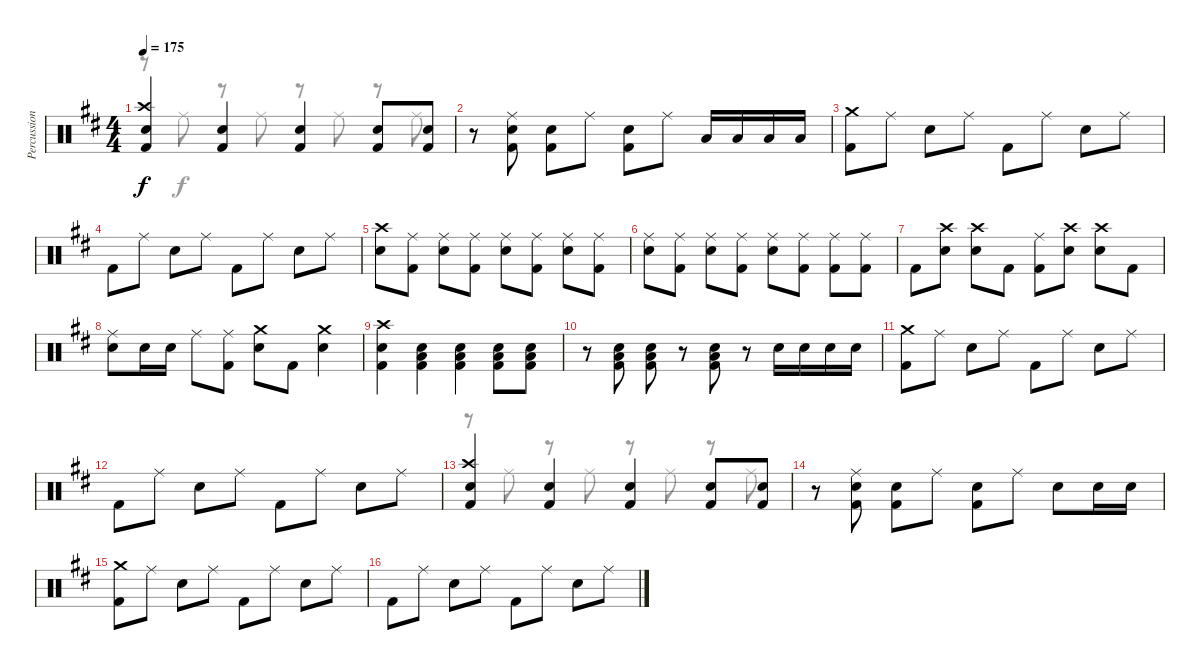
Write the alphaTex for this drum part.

\track ("Percussion" "Percussion") {instrument percussion}
\staff {score}
\articulation defaults
\voice
\ts (4 4)
\tempo 175
\clef neutral
\ks d
("Crash high (hit)" "Electric Snare (hit)" "Kick (hit) 2").4{dy f} ("Electric Snare (hit)" "Kick (hit) 2").4 ("Electric Snare (hit)" "Kick (hit) 2").4 ("Electric Snare (hit)" "Kick (hit) 2").8 ("Electric Snare (hit)" "Kick (hit) 2").8 |
r.8 ("Ride (middle)" "Electric Snare (hit)" "Kick (hit) 2").8 ("Electric Snare (hit)" "Kick (hit) 2").8 "Ride (middle)".8 ("Electric Snare (hit)" "Kick (hit) 2").8 "Ride (middle)".8 "Low Floor Tom (hit)".16 "Low Floor Tom (hit)".16 "Low Floor Tom (hit)".16 "Low Floor Tom (hit)".16 |
("Crash medium (hit)" "Kick (hit) 2").8 "Ride (middle)".8 "Electric Snare (hit)".8 "Ride (middle)".8 "Kick (hit) 2".8 "Ride (middle)".8 "Electric Snare (hit)".8 "Ride (middle)".8 |
"Kick (hit) 2".8 "Ride (middle)".8 "Electric Snare (hit)".8 "Ride (middle)".8 "Kick (hit) 2".8 "Ride (middle)".8 "Electric Snare (hit)".8 "Ride (middle)".8 |
("Crash high (hit)" "Electric Snare (hit)").8 ("Ride (middle)" "Kick (hit) 2").8 ("Ride (middle)" "Electric Snare (hit)").8 ("Ride (middle)" "Kick (hit) 2").8 ("Ride (middle)" "Electric Snare (hit)").8 ("Ride (middle)" "Kick (hit) 2").8 ("Ride (middle)" "Electric Snare (hit)").8 ("Ride (middle)" "Kick (hit) 2").8 |
("Ride (middle)" "Electric Snare (hit)").8 ("Ride (middle)" "Kick (hit) 2").8 ("Ride (middle)" "Electric Snare (hit)").8 ("Ride (middle)" "Kick (hit) 2").8 ("Ride (middle)" "Electric Snare (hit)").8 ("Ride (middle)" "Kick (hit) 2").8 ("Ride (middle)" "Kick (hit) 2").8 ("Ride (middle)" "Kick (hit) 2").8 |
"Kick (hit) 2".8 ("Crash high (hit)" "Electric Snare (hit)").8 ("Crash high (hit)" "Electric Snare (hit)").8 "Kick (hit) 2".8 ("Ride (middle)" "Kick (hit) 2").8 ("Crash high (hit)" "Electric Snare (hit)").8 ("Crash high (hit)" "Electric Snare (hit)").8 "Kick (hit) 2".8 |
("Ride (middle)" "Electric Snare (hit)").8 "Electric Snare (hit)".16 "Electric Snare (hit)".16 "Ride (middle)".8 ("Ride (middle)" "Kick (hit) 2").8 ("Crash medium (hit)" "Electric Snare (hit)").8 "Kick (hit) 2".8 ("Crash medium (hit)" "Electric Snare (hit)").4 |
("Crash high (hit)" "Electric Snare (hit)" "Kick (hit) 2").4 ("Low Floor Tom (hit)" "Electric Snare (hit)" "Kick (hit) 2").4 ("Low Floor Tom (hit)" "Electric Snare (hit)" "Kick (hit) 2").4 ("Low Floor Tom (hit)" "Electric Snare (hit)" "Kick (hit) 2").8 ("Low Floor Tom (hit)" "Electric Snare (hit)" "Kick (hit) 2").8 |
r.8 ("Low Floor Tom (hit)" "Electric Snare (hit)" "Kick (hit) 2").8 ("Low Floor Tom (hit)" "Electric Snare (hit)" "Kick (hit) 2").8 r.8 ("Low Floor Tom (hit)" "Electric Snare (hit)" "Kick (hit) 2").8 r.8 "Electric Snare (hit)".16 "Electric Snare (hit)".16 "Electric Snare (hit)".16 "Electric Snare (hit)".16 |
("Crash medium (hit)" "Kick (hit) 2").8 "Ride (middle)".8 "Electric Snare (hit)".8 "Ride (middle)".8 "Kick (hit) 2".8 "Ride (middle)".8 "Electric Snare (hit)".8 "Ride (middle)".8 |
"Kick (hit) 2".8 "Ride (middle)".8 "Electric Snare (hit)".8 "Ride (middle)".8 "Kick (hit) 2".8 "Ride (middle)".8 "Electric Snare (hit)".8 "Ride (middle)".8 |
("Crash high (hit)" "Electric Snare (hit)" "Kick (hit) 2").4 ("Electric Snare (hit)" "Kick (hit) 2").4 ("Electric Snare (hit)" "Kick (hit) 2").4 ("Electric Snare (hit)" "Kick (hit) 2").8 ("Electric Snare (hit)" "Kick (hit) 2").8 |
r.8 ("Ride (middle)" "Electric Snare (hit)" "Kick (hit) 2").8 ("Electric Snare (hit)" "Kick (hit) 2").8 "Ride (middle)".8 ("Electric Snare (hit)" "Kick (hit) 2").8 "Ride (middle)".8 "Electric Snare (hit)".8 "Electric Snare (hit)".16 "Electric Snare (hit)".16 |
("Crash medium (hit)" "Kick (hit) 2").8 "Ride (middle)".8 "Electric Snare (hit)".8 "Ride (middle)".8 "Kick (hit) 2".8 "Ride (middle)".8 "Electric Snare (hit)".8 "Ride (middle)".8 |
"Kick (hit) 2".8 "Ride (middle)".8 "Electric Snare (hit)".8 "Ride (middle)".8 "Kick (hit) 2".8 "Ride (middle)".8 "Electric Snare (hit)".8 "Ride (middle)".8
\voice
\clef neutral
\ottava regular
\simile none
\ks d
r.8{dy f} "Ride (middle)".8 r.8 "Ride (middle)".8 r.8 "Ride (middle)".8 r.8 "Ride (middle)".8 |
|
|
|
|
|
|
|
|
|
|
|
r.8 "Ride (middle)".8 r.8 "Ride (middle)".8 r.8 "Ride (middle)".8 r.8 "Ride (middle)".8 |
|
|
